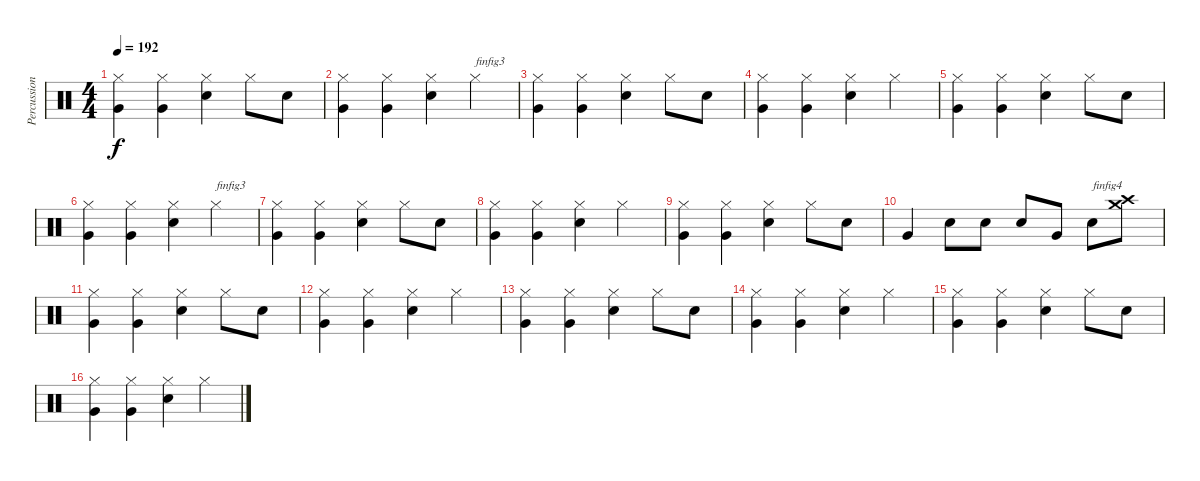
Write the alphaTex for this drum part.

\track ("Percussions" "Percussion") {instrument percussion}
\staff {score}
\articulation defaults
\ts (4 4)
\tempo 192
\clef neutral
\ks c
("Very Low Tom (hit)" "Hi-Hat (closed)").4{dy f} ("Very Low Tom (hit)" "Hi-Hat (closed)").4 ("Snare (hit) 2" "Hi-Hat (closed)").4 "Hi-Hat (closed)".8 "Snare (hit) 2".8 |
("Very Low Tom (hit)" "Hi-Hat (closed)").4 ("Very Low Tom (hit)" "Hi-Hat (closed)").4 ("Snare (hit) 2" "Hi-Hat (closed)").4 "Hi-Hat (closed)".4{txt "finfig3"} |
("Very Low Tom (hit)" "Hi-Hat (closed)").4 ("Very Low Tom (hit)" "Hi-Hat (closed)").4 ("Snare (hit) 2" "Hi-Hat (closed)").4 "Hi-Hat (closed)".8 "Snare (hit) 2".8 |
("Very Low Tom (hit)" "Hi-Hat (closed)").4 ("Very Low Tom (hit)" "Hi-Hat (closed)").4 ("Snare (hit) 2" "Hi-Hat (closed)").4 "Hi-Hat (closed)".4 |
("Very Low Tom (hit)" "Hi-Hat (closed)").4 ("Very Low Tom (hit)" "Hi-Hat (closed)").4 ("Snare (hit) 2" "Hi-Hat (closed)").4 "Hi-Hat (closed)".8 "Snare (hit) 2".8 |
("Very Low Tom (hit)" "Hi-Hat (closed)").4 ("Very Low Tom (hit)" "Hi-Hat (closed)").4 ("Snare (hit) 2" "Hi-Hat (closed)").4 "Hi-Hat (closed)".4{txt "finfig3"} |
("Very Low Tom (hit)" "Hi-Hat (closed)").4 ("Very Low Tom (hit)" "Hi-Hat (closed)").4 ("Snare (hit) 2" "Hi-Hat (closed)").4 "Hi-Hat (closed)".8 "Snare (hit) 2".8 |
("Very Low Tom (hit)" "Hi-Hat (closed)").4 ("Very Low Tom (hit)" "Hi-Hat (closed)").4 ("Snare (hit) 2" "Hi-Hat (closed)").4 "Hi-Hat (closed)".4 |
("Very Low Tom (hit)" "Hi-Hat (closed)").4 ("Very Low Tom (hit)" "Hi-Hat (closed)").4 ("Snare (hit) 2" "Hi-Hat (closed)").4 "Hi-Hat (closed)".8 "Snare (hit) 2".8 |
"Very Low Tom (hit)".4 "Snare (hit) 2".8 "Snare (hit) 2".8 "Snare (hit) 2".8 "Very Low Tom (hit)".8 "Snare (hit) 2".8{txt "finfig4"} ("Crash high (hit)" "Crash medium (hit)").8 |
("Very Low Tom (hit)" "Hi-Hat (closed)").4 ("Very Low Tom (hit)" "Hi-Hat (closed)").4 ("Snare (hit) 2" "Hi-Hat (closed)").4 "Hi-Hat (closed)".8 "Snare (hit) 2".8 |
("Very Low Tom (hit)" "Hi-Hat (closed)").4 ("Very Low Tom (hit)" "Hi-Hat (closed)").4 ("Snare (hit) 2" "Hi-Hat (closed)").4 "Hi-Hat (closed)".4 |
("Very Low Tom (hit)" "Hi-Hat (closed)").4 ("Very Low Tom (hit)" "Hi-Hat (closed)").4 ("Snare (hit) 2" "Hi-Hat (closed)").4 "Hi-Hat (closed)".8 "Snare (hit) 2".8 |
("Very Low Tom (hit)" "Hi-Hat (closed)").4 ("Very Low Tom (hit)" "Hi-Hat (closed)").4 ("Snare (hit) 2" "Hi-Hat (closed)").4 "Hi-Hat (closed)".4 |
("Very Low Tom (hit)" "Hi-Hat (closed)").4 ("Very Low Tom (hit)" "Hi-Hat (closed)").4 ("Snare (hit) 2" "Hi-Hat (closed)").4 "Hi-Hat (closed)".8 "Snare (hit) 2".8 |
("Very Low Tom (hit)" "Hi-Hat (closed)").4 ("Very Low Tom (hit)" "Hi-Hat (closed)").4 ("Snare (hit) 2" "Hi-Hat (closed)").4 "Hi-Hat (closed)".4
